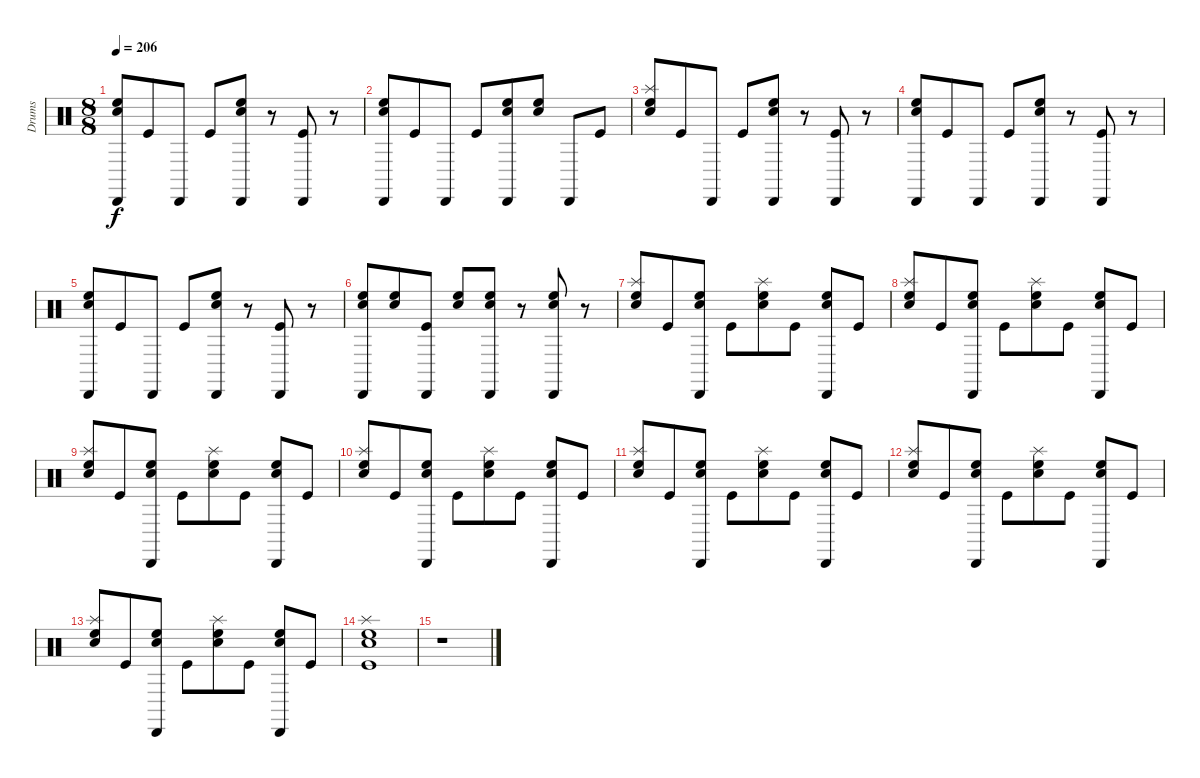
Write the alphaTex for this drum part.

\track ("Drums" "Drums") {instrument percussion}
\staff {score}
\articulation defaults
\ts (8 8)
\tempo 206
\clef neutral
\ks c
("Cabasa (hit)" "High Floor Tom (hit)" "Electric Snare (hit)").8{dy f} "Kick (hit)".8 "Cabasa (hit)".8 "Kick (hit)".8 ("Cabasa (hit)" "High Floor Tom (hit)" "Electric Snare (hit)").8 r.8 ("Cabasa (hit)" "Kick (hit)").8 r.8 |
("Cabasa (hit)" "High Floor Tom (hit)" "Electric Snare (hit)").8 "Kick (hit)".8 "Cabasa (hit)".8 "Kick (hit)".8 ("Cabasa (hit)" "High Floor Tom (hit)" "Electric Snare (hit)").8 ("High Floor Tom (hit)" "Electric Snare (hit)").8 "Cabasa (hit)".8 "Kick (hit)".8 |
("Splash (hit)" "High Floor Tom (hit)" "Electric Snare (hit)").8 "Kick (hit)".8 "Cabasa (hit)".8 "Kick (hit)".8 ("Cabasa (hit)" "High Floor Tom (hit)" "Electric Snare (hit)").8 r.8 ("Cabasa (hit)" "Kick (hit)").8 r.8 |
("Cabasa (hit)" "High Floor Tom (hit)" "Electric Snare (hit)").8 "Kick (hit)".8 "Cabasa (hit)".8 "Kick (hit)".8 ("Cabasa (hit)" "High Floor Tom (hit)" "Electric Snare (hit)").8 r.8 ("Cabasa (hit)" "Kick (hit)").8 r.8 |
("Cabasa (hit)" "High Floor Tom (hit)" "Electric Snare (hit)").8 "Kick (hit)".8 "Cabasa (hit)".8 "Kick (hit)".8 ("Cabasa (hit)" "High Floor Tom (hit)" "Electric Snare (hit)").8 r.8 ("Cabasa (hit)" "Kick (hit)").8 r.8 |
("Cabasa (hit)" "High Floor Tom (hit)" "Electric Snare (hit)").8 ("High Floor Tom (hit)" "Electric Snare (hit)").8 ("Kick (hit)" "Cabasa (hit)").8 ("High Floor Tom (hit)" "Electric Snare (hit)").8 ("Cabasa (hit)" "High Floor Tom (hit)" "Electric Snare (hit)").8 r.8 ("Electric Snare (hit)" "High Floor Tom (hit)" "Cabasa (hit)").8 r.8 |
("Electric Snare (hit)" "High Floor Tom (hit)" "Splash (hit)").8 "Kick (hit)".8 ("High Floor Tom (hit)" "Electric Snare (hit)" "Cabasa (hit)").8 "Kick (hit)".8 ("Electric Snare (hit)" "High Floor Tom (hit)" "Splash (hit)").8 "Kick (hit)".8 ("High Floor Tom (hit)" "Electric Snare (hit)" "Cabasa (hit)").8 "Kick (hit)".8 |
("Electric Snare (hit)" "High Floor Tom (hit)" "Splash (hit)").8 "Kick (hit)".8 ("High Floor Tom (hit)" "Electric Snare (hit)" "Cabasa (hit)").8 "Kick (hit)".8 ("Electric Snare (hit)" "High Floor Tom (hit)" "Splash (hit)").8 "Kick (hit)".8 ("High Floor Tom (hit)" "Electric Snare (hit)" "Cabasa (hit)").8 "Kick (hit)".8 |
("Electric Snare (hit)" "High Floor Tom (hit)" "Splash (hit)").8 "Kick (hit)".8 ("High Floor Tom (hit)" "Electric Snare (hit)" "Cabasa (hit)").8 "Kick (hit)".8 ("Electric Snare (hit)" "High Floor Tom (hit)" "Splash (hit)").8 "Kick (hit)".8 ("High Floor Tom (hit)" "Electric Snare (hit)" "Cabasa (hit)").8 "Kick (hit)".8 |
("Electric Snare (hit)" "High Floor Tom (hit)" "Splash (hit)").8 "Kick (hit)".8 ("High Floor Tom (hit)" "Electric Snare (hit)" "Cabasa (hit)").8 "Kick (hit)".8 ("Electric Snare (hit)" "High Floor Tom (hit)" "Splash (hit)").8 "Kick (hit)".8 ("High Floor Tom (hit)" "Electric Snare (hit)" "Cabasa (hit)").8 "Kick (hit)".8 |
("Electric Snare (hit)" "High Floor Tom (hit)" "Splash (hit)").8 "Kick (hit)".8 ("High Floor Tom (hit)" "Electric Snare (hit)" "Cabasa (hit)").8 "Kick (hit)".8 ("Electric Snare (hit)" "High Floor Tom (hit)" "Splash (hit)").8 "Kick (hit)".8 ("High Floor Tom (hit)" "Electric Snare (hit)" "Cabasa (hit)").8 "Kick (hit)".8 |
("Electric Snare (hit)" "High Floor Tom (hit)" "Splash (hit)").8 "Kick (hit)".8 ("High Floor Tom (hit)" "Electric Snare (hit)" "Cabasa (hit)").8 "Kick (hit)".8 ("Electric Snare (hit)" "High Floor Tom (hit)" "Splash (hit)").8 "Kick (hit)".8 ("High Floor Tom (hit)" "Electric Snare (hit)" "Cabasa (hit)").8 "Kick (hit)".8 |
("Electric Snare (hit)" "High Floor Tom (hit)" "Splash (hit)").8 "Kick (hit)".8 ("High Floor Tom (hit)" "Electric Snare (hit)" "Cabasa (hit)").8 "Kick (hit)".8 ("Electric Snare (hit)" "High Floor Tom (hit)" "Splash (hit)").8 "Kick (hit)".8 ("High Floor Tom (hit)" "Electric Snare (hit)" "Cabasa (hit)").8 "Kick (hit)".8 |
("High Floor Tom (hit)" "Electric Snare (hit)" "Kick (hit)" "Splash (hit)").1 |
r.1
